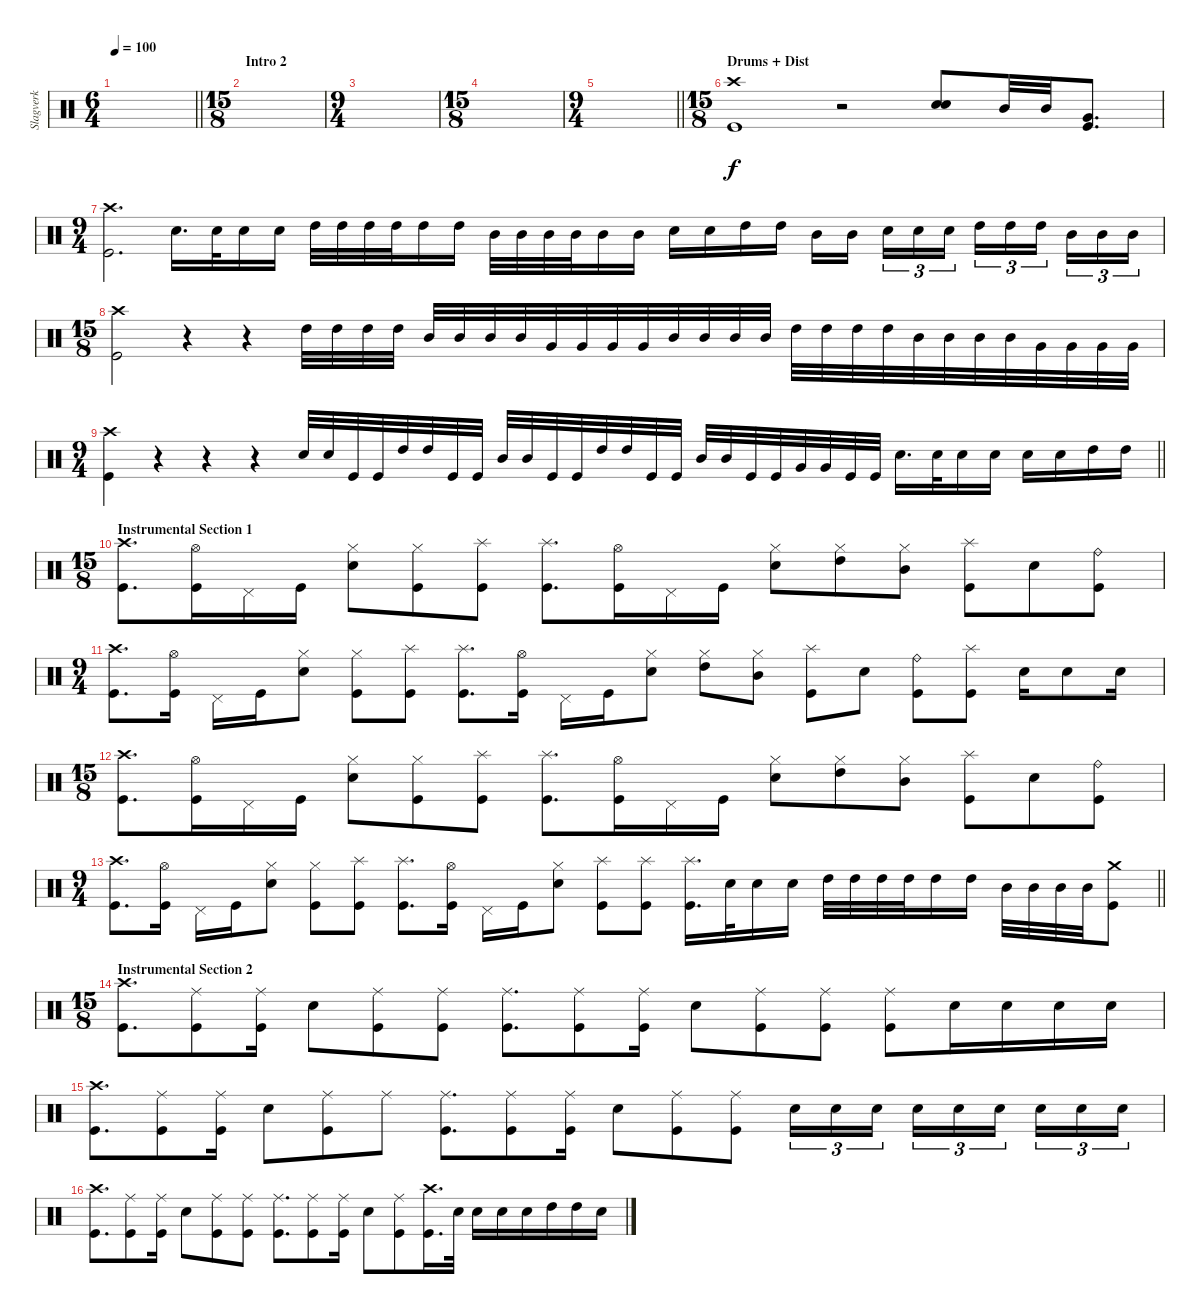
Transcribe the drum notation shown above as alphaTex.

\track ("Slagverk" "Slagverk") {instrument percussion}
\staff {score}
\articulation defaults
\ts (6 4)
\tempo 100
\clef neutral
\barLineRight lightlight
\ks c
|
\ts (15 8)
\section ("" "Intro 2")
|
\ts (9 4)
|
\ts (15 8)
|
\ts (9 4)
\barLineRight lightlight
|
\ts (15 8)
\section ("" "Drums + Dist")
("Crash high (hit)" "Kick (hit)").1 r.2 ("Electric Snare (hit)" "Electric Snare (hit)").8 "Mid Tom (hit)".32 "Mid Tom (hit)".32 ("Kick (hit)" "Very Low Tom (hit)").8{d} |
\ts (9 4)
("Crash high (hit)" "Kick (hit)").2{d} "Electric Snare (hit)".16{d} "Electric Snare (hit)".32 "Electric Snare (hit)".16 "Electric Snare (hit)".16 "High Tom (hit)".32 "High Tom (hit)".32 "High Tom (hit)".32 "High Tom (hit)".32 "High Tom (hit)".16 "High Tom (hit)".16 "Mid Tom (hit)".32 "Mid Tom (hit)".32 "Mid Tom (hit)".32 "Mid Tom (hit)".32 "Mid Tom (hit)".16 "Mid Tom (hit)".16 "Electric Snare (hit)".16 "Electric Snare (hit)".16 "High Tom (hit)".16 "High Tom (hit)".16 "Mid Tom (hit)".16 "Mid Tom (hit)".16{beam splitsecondary} "Electric Snare (hit)".16{tu (3 2)} "Electric Snare (hit)".16{tu (3 2)} "Electric Snare (hit)".16{tu (3 2) beam splitsecondary} "High Tom (hit)".16{tu (3 2)} "High Tom (hit)".16{tu (3 2)} "High Tom (hit)".16{tu (3 2) beam splitsecondary} "Mid Tom (hit)".16{tu (3 2)} "Mid Tom (hit)".16{tu (3 2)} "Mid Tom (hit)".16{tu (3 2)} |
\ts (15 8)
("Crash high (hit)" "Kick (hit)").2 r.4 r.4 "High Tom (hit)".32 "High Tom (hit)".32 "High Tom (hit)".32 "High Tom (hit)".32 "Mid Tom (hit)".32 "Mid Tom (hit)".32 "Mid Tom (hit)".32 "Mid Tom (hit)".32 "Very Low Tom (hit)".32 "Very Low Tom (hit)".32 "Very Low Tom (hit)".32 "Very Low Tom (hit)".32 "Mid Tom (hit)".32 "Mid Tom (hit)".32 "Mid Tom (hit)".32 "Mid Tom (hit)".32 "High Tom (hit)".32 "High Tom (hit)".32 "High Tom (hit)".32 "High Tom (hit)".32 "Mid Tom (hit)".32 "Mid Tom (hit)".32 "Mid Tom (hit)".32 "Mid Tom (hit)".32 "Very Low Tom (hit)".32 "Very Low Tom (hit)".32 "Very Low Tom (hit)".32 "Very Low Tom (hit)".32 |
\ts (9 4)
\barLineRight lightlight
("Crash high (hit)" "Kick (hit)").4 r.4 r.4 r.4 "Electric Snare (hit)".32 "Electric Snare (hit)".32 "Kick (hit)".32 "Kick (hit)".32 "High Tom (hit)".32 "High Tom (hit)".32 "Kick (hit)".32 "Kick (hit)".32 "Mid Tom (hit)".32 "Mid Tom (hit)".32 "Kick (hit)".32 "Kick (hit)".32 "High Tom (hit)".32 "High Tom (hit)".32 "Kick (hit)".32 "Kick (hit)".32 "Mid Tom (hit)".32 "Mid Tom (hit)".32 "Kick (hit)".32 "Kick (hit)".32 "Very Low Tom (hit)".32 "Very Low Tom (hit)".32 "Kick (hit)".32 "Kick (hit)".32 "Electric Snare (hit)".16{d} "Electric Snare (hit)".32 "Electric Snare (hit)".16 "Electric Snare (hit)".16 "Electric Snare (hit)".16 "Electric Snare (hit)".16 "High Tom (hit)".16 "High Tom (hit)".16 |
\ts (15 8)
\section ("" "Instrumental Section 1")
("Crash high (hit)" "Kick (hit)").8{d} ("Hi-Hat (open)" "Kick (hit)").16 "Pedal Hi-Hat (hit)".16 "Kick (hit)".16 ("Hi-Hat (closed)" "Electric Snare (hit)").8 ("Hi-Hat (closed)" "Kick (hit)").8 ("Splash (hit)" "Kick (hit)").8 ("Splash (hit)" "Kick (hit)").8{d} ("Hi-Hat (open)" "Kick (hit)").16 "Pedal Hi-Hat (hit)".16 "Kick (hit)".16 ("Hi-Hat (closed)" "Electric Snare (hit)").8 ("Hi-Hat (closed)" "High Tom (hit)").8 ("Hi-Hat (closed)" "Mid Tom (hit)").8 ("Splash (hit)" "Kick (hit)").8 "Electric Snare (hit)".8 ("Ride (bell)" "Kick (hit)").8 |
\ts (9 4)
("Crash high (hit)" "Kick (hit)").8{d} ("Hi-Hat (open)" "Kick (hit)").16 "Pedal Hi-Hat (hit)".16 "Kick (hit)".16 ("Hi-Hat (closed)" "Electric Snare (hit)").8 ("Hi-Hat (closed)" "Kick (hit)").8 ("Splash (hit)" "Kick (hit)").8 ("Splash (hit)" "Kick (hit)").8{d} ("Hi-Hat (open)" "Kick (hit)").16 "Pedal Hi-Hat (hit)".16 "Kick (hit)".16 ("Hi-Hat (closed)" "Electric Snare (hit)").8 ("Hi-Hat (closed)" "High Tom (hit)").8 ("Hi-Hat (closed)" "Mid Tom (hit)").8 ("Splash (hit)" "Kick (hit)").8 "Electric Snare (hit)".8 ("Ride (bell)" "Kick (hit)").8 ("Splash (hit)" "Kick (hit)").8 "Electric Snare (hit)".16 "Electric Snare (hit)".8 "Electric Snare (hit)".16 |
\ts (15 8)
("Crash high (hit)" "Kick (hit)").8{d} ("Hi-Hat (open)" "Kick (hit)").16 "Pedal Hi-Hat (hit)".16 "Kick (hit)".16 ("Hi-Hat (closed)" "Electric Snare (hit)").8 ("Hi-Hat (closed)" "Kick (hit)").8 ("Splash (hit)" "Kick (hit)").8 ("Splash (hit)" "Kick (hit)").8{d} ("Hi-Hat (open)" "Kick (hit)").16 "Pedal Hi-Hat (hit)".16 "Kick (hit)".16 ("Hi-Hat (closed)" "Electric Snare (hit)").8 ("Hi-Hat (closed)" "High Tom (hit)").8 ("Hi-Hat (closed)" "Mid Tom (hit)").8 ("Splash (hit)" "Kick (hit)").8 "Electric Snare (hit)".8 ("Ride (bell)" "Kick (hit)").8 |
\ts (9 4)
\barLineRight lightlight
("Crash high (hit)" "Kick (hit)").8{d} ("Hi-Hat (open)" "Kick (hit)").16 "Pedal Hi-Hat (hit)".16 "Kick (hit)".16 ("Hi-Hat (closed)" "Electric Snare (hit)").8 ("Hi-Hat (closed)" "Kick (hit)").8 ("Splash (hit)" "Kick (hit)").8 ("Splash (hit)" "Kick (hit)").8{d} ("Hi-Hat (open)" "Kick (hit)").16 "Pedal Hi-Hat (hit)".16 "Kick (hit)".16 ("Hi-Hat (closed)" "Electric Snare (hit)").8 ("Splash (hit)" "Kick (hit)").8 ("Splash (hit)" "Kick (hit)").8 ("Splash (hit)" "Kick (hit)").16{d} "Electric Snare (hit)".32 "Electric Snare (hit)".16 "Electric Snare (hit)".16 "High Tom (hit)".32 "High Tom (hit)".32 "High Tom (hit)".32 "High Tom (hit)".32 "High Tom (hit)".16 "High Tom (hit)".16 "Mid Tom (hit)".32 "Mid Tom (hit)".32 "Mid Tom (hit)".32 "Mid Tom (hit)".32 ("Crash medium (hit)" "Kick (hit)").8 |
\ts (15 8)
\section ("" "Instrumental Section 2")
("Crash high (hit)" "Kick (hit)").8{d} ("Ride (middle)" "Kick (hit)").8 ("Ride (middle)" "Kick (hit)").16 "Electric Snare (hit)".8 ("Ride (middle)" "Kick (hit)").8 ("Ride (middle)" "Kick (hit)").8 ("Ride (middle)" "Kick (hit)").8{d} ("Ride (middle)" "Kick (hit)").8 ("Ride (middle)" "Kick (hit)").16 "Electric Snare (hit)".8 ("Ride (middle)" "Kick (hit)").8 ("Ride (middle)" "Kick (hit)").8 ("Ride (middle)" "Kick (hit)").8 "Electric Snare (hit)".16 "Electric Snare (hit)".16 "Electric Snare (hit)".16 "Electric Snare (hit)".16 |
("Crash high (hit)" "Kick (hit)").8{d} ("Ride (middle)" "Kick (hit)").8 ("Ride (middle)" "Kick (hit)").16 "Electric Snare (hit)".8 ("Ride (middle)" "Kick (hit)").8 "Ride (middle)".8 ("Ride (middle)" "Kick (hit)").8{d} ("Ride (middle)" "Kick (hit)").8 ("Ride (middle)" "Kick (hit)").16 "Electric Snare (hit)".8 ("Ride (middle)" "Kick (hit)").8 ("Ride (middle)" "Kick (hit)").8 "Electric Snare (hit)".16{tu (3 2)} "Electric Snare (hit)".16{tu (3 2)} "Electric Snare (hit)".16{tu (3 2) beam splitsecondary} "Electric Snare (hit)".16{tu (3 2)} "Electric Snare (hit)".16{tu (3 2)} "Electric Snare (hit)".16{tu (3 2) beam splitsecondary} "Electric Snare (hit)".16{tu (3 2)} "Electric Snare (hit)".16{tu (3 2)} "Electric Snare (hit)".16{tu (3 2)} |
("Crash high (hit)" "Kick (hit)").8{d} ("Ride (middle)" "Kick (hit)").8 ("Ride (middle)" "Kick (hit)").16 "Electric Snare (hit)".8 ("Ride (middle)" "Kick (hit)").8 ("Ride (middle)" "Kick (hit)").8 ("Ride (middle)" "Kick (hit)").8{d} ("Ride (middle)" "Kick (hit)").8 ("Ride (middle)" "Kick (hit)").16 "Electric Snare (hit)".8 ("Ride (middle)" "Kick (hit)").8 ("Crash high (hit)" "Kick (hit)").16{d} "Electric Snare (hit)".32 "Electric Snare (hit)".16 "Electric Snare (hit)".16 "Electric Snare (hit)".16 "High Tom (hit)".16 "High Tom (hit)".16 "Electric Snare (hit)".16
